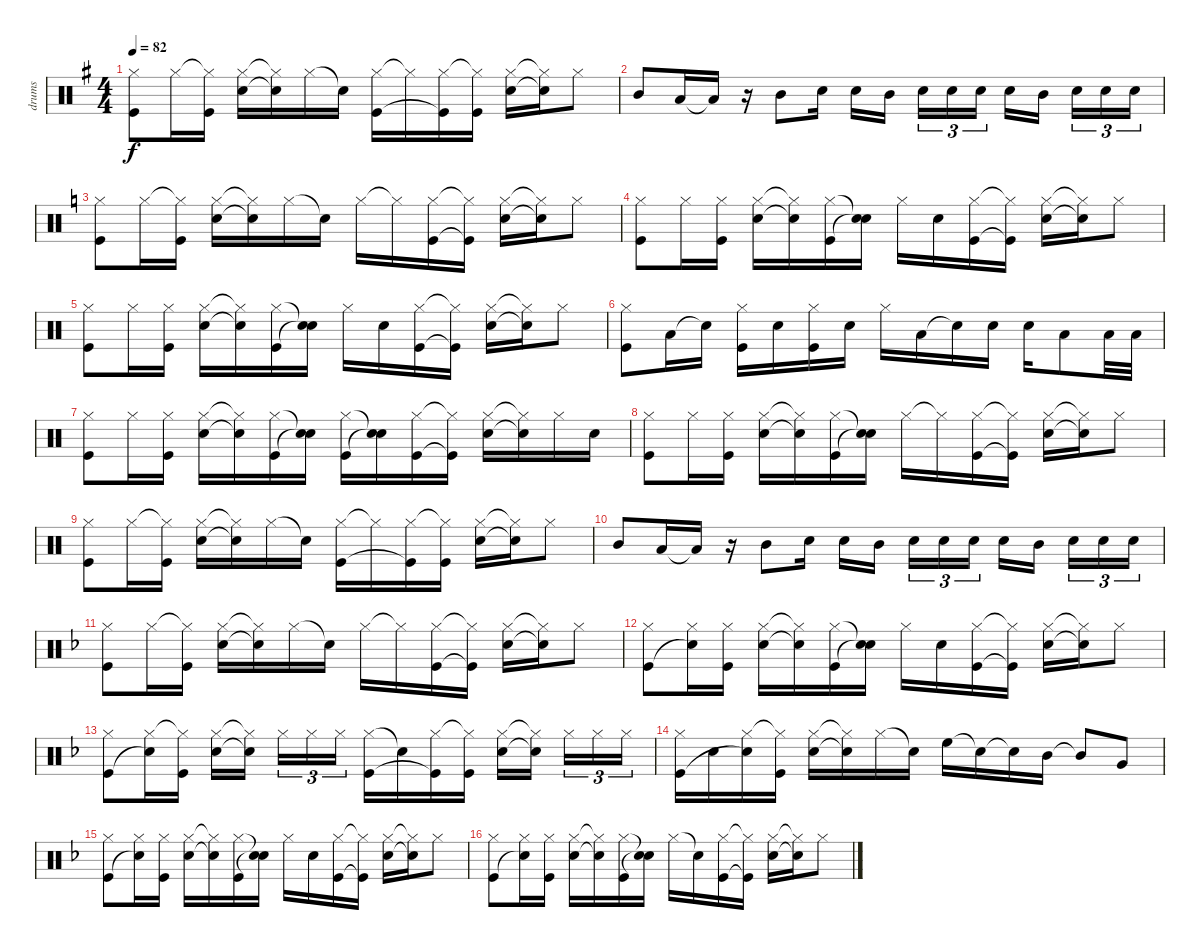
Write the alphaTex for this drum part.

\track ("drums" "drums") {instrument percussion}
\staff {score}
\articulation defaults
\ts (4 4)
\tempo 82
\clef neutral
\ks g
("Hi-Hat (closed)" "Kick (hit)").8{dy f} "Hi-Hat (closed)".16 ("Hi-Hat (closed)"{t} "Kick (hit)").16 ("Hi-Hat (closed)" "Snare (hit) 2").16 ("Hi-Hat (closed)"{t} "Snare (hit) 2"{t}).16 "Hi-Hat (closed)".16 "Snare (hit)"{t}.16 ("Hi-Hat (closed)" "Kick (hit)").16 "Hi-Hat (closed)"{t}.16 ("Hi-Hat (closed)" "Kick (hit)"{t}).16 ("Hi-Hat (closed)"{t} "Kick (hit)").16 ("Hi-Hat (closed)" "Snare (hit) 2").16 ("Hi-Hat (closed)"{t} "Snare (hit)"{t}).16 "Hi-Hat (closed)".8 |
"Mid Tom (hit)".8 "Low Tom (hit)".16 "Low Tom (hit)"{t}.16 r.16 "Mid Tom (hit)".8 "Snare (hit) 2".16 "Snare (hit) 2".16 "Mid Tom (hit)".16 "Snare (hit) 2".16{tu (3 2)} "Snare (hit) 2".16{tu (3 2)} "Snare (hit) 2".16{tu (3 2)} "Snare (hit) 2".16 "Mid Tom (hit)".16 "Snare (hit) 2".16{tu (3 2)} "Snare (hit) 2".16{tu (3 2)} "Snare (hit) 2".16{tu (3 2)} |
\ks c
("Hi-Hat (closed)" "Kick (hit)").8 "Hi-Hat (closed)".16 ("Hi-Hat (closed)"{t} "Kick (hit)").16 ("Hi-Hat (closed)" "Snare (hit) 2").16 ("Hi-Hat (closed)"{t} "Snare (hit) 2"{t}).16 "Hi-Hat (closed)".16 "Snare (hit)"{t}.16 "Hi-Hat (closed)".16 "Hi-Hat (closed)"{t}.16 ("Hi-Hat (closed)" "Kick (hit)").16 ("Hi-Hat (closed)"{t} "Kick (hit)"{t}).16 ("Hi-Hat (closed)" "Snare (hit) 2").16 ("Hi-Hat (closed)"{t} "Snare (hit)"{t}).16 "Hi-Hat (closed)".8 |
("Hi-Hat (closed)" "Kick (hit)").8 "Hi-Hat (closed)".16 ("Hi-Hat (closed)" "Kick (hit)").16 ("Hi-Hat (closed)" "Snare (hit) 2").16 ("Hi-Hat (closed)"{t} "Snare (hit) 2"{t}).16 ("Hi-Hat (closed)" "Kick (hit)").16 ("Snare (hit)"{t} "Snare (hit)"{t}).16 "Hi-Hat (closed)".16 "Snare (hit) 2".16 ("Hi-Hat (closed)" "Kick (hit)").16 ("Hi-Hat (closed)"{t} "Kick (hit)"{t}).16 ("Hi-Hat (closed)" "Snare (hit) 2").16 ("Hi-Hat (closed)"{t} "Snare (hit)"{t}).16 "Hi-Hat (closed)".8 |
("Hi-Hat (closed)" "Kick (hit)").8 "Hi-Hat (closed)".16 ("Hi-Hat (closed)" "Kick (hit)").16 ("Hi-Hat (closed)" "Snare (hit) 2").16 ("Hi-Hat (closed)"{t} "Snare (hit) 2"{t}).16 ("Hi-Hat (closed)" "Kick (hit)").16 ("Snare (hit)"{t} "Snare (hit)"{t}).16 "Hi-Hat (closed)".16 "Snare (hit) 2".16 ("Hi-Hat (closed)" "Kick (hit)").16 ("Hi-Hat (closed)"{t} "Kick (hit)"{t}).16 ("Hi-Hat (closed)" "Snare (hit) 2").16 ("Hi-Hat (closed)"{t} "Snare (hit)"{t}).16 "Hi-Hat (closed)".8 |
("Hi-Hat (closed)" "Kick (hit)").8 "Low Tom (hit)".16 "Snare (hit)"{t}.16 ("Hi-Hat (closed)" "Kick (hit)").16 "Snare (hit) 2".16 ("Hi-Hat (closed)" "Kick (hit)").16 "Snare (hit) 2".16 "Hi-Hat (closed)".16 "Low Tom (hit)".16 "Snare (hit)"{t}.16 "Snare (hit) 2".16 "Snare (hit) 2".16 "Low Tom (hit)".8 "Low Tom (hit)".32 "Low Tom (hit)".32 |
("Hi-Hat (closed)" "Kick (hit)").8 "Hi-Hat (closed)".16 ("Hi-Hat (closed)" "Kick (hit)").16 ("Hi-Hat (closed)" "Snare (hit) 2").16 ("Hi-Hat (closed)"{t} "Snare (hit) 2"{t}).16 ("Hi-Hat (closed)" "Kick (hit)").16 ("Snare (hit)"{t} "Snare (hit)"{t}).16 ("Hi-Hat (closed)" "Kick (hit)").16 ("Snare (hit)"{t} "Snare (hit)"{t}).16 ("Hi-Hat (closed)" "Kick (hit)").16 ("Hi-Hat (closed)"{t} "Kick (hit)"{t}).16 ("Hi-Hat (closed)" "Snare (hit) 2").16 ("Hi-Hat (closed)"{t} "Snare (hit)"{t}).16 "Hi-Hat (closed)".16 "Snare (hit) 2".16 |
("Hi-Hat (closed)" "Kick (hit)").8 "Hi-Hat (closed)".16 ("Hi-Hat (closed)" "Kick (hit)").16 ("Hi-Hat (closed)" "Snare (hit) 2").16 ("Hi-Hat (closed)"{t} "Snare (hit) 2"{t}).16 ("Hi-Hat (closed)" "Kick (hit)").16 ("Snare (hit)"{t} "Snare (hit)"{t}).16 "Hi-Hat (closed)".16 "Hi-Hat (closed)"{t}.16 ("Hi-Hat (closed)" "Kick (hit)").16 ("Hi-Hat (closed)"{t} "Kick (hit)"{t}).16 ("Hi-Hat (closed)" "Snare (hit) 2").16 ("Hi-Hat (closed)"{t} "Snare (hit)"{t}).16 "Hi-Hat (closed)".8 |
("Hi-Hat (closed)" "Kick (hit)").8 "Hi-Hat (closed)".16 ("Hi-Hat (closed)"{t} "Kick (hit)").16 ("Hi-Hat (closed)" "Snare (hit) 2").16 ("Hi-Hat (closed)"{t} "Snare (hit) 2"{t}).16 "Hi-Hat (closed)".16 "Snare (hit)"{t}.16 ("Hi-Hat (closed)" "Kick (hit)").16 "Hi-Hat (closed)"{t}.16 ("Hi-Hat (closed)" "Kick (hit)"{t}).16 ("Hi-Hat (closed)"{t} "Kick (hit)").16 ("Hi-Hat (closed)" "Snare (hit) 2").16 ("Hi-Hat (closed)"{t} "Snare (hit)"{t}).16 "Hi-Hat (closed)".8 |
"Mid Tom (hit)".8 "Low Tom (hit)".16 "Low Tom (hit)"{t}.16 r.16 "Mid Tom (hit)".8 "Snare (hit) 2".16 "Snare (hit) 2".16 "Mid Tom (hit)".16 "Snare (hit) 2".16{tu (3 2)} "Snare (hit) 2".16{tu (3 2)} "Snare (hit) 2".16{tu (3 2)} "Snare (hit) 2".16 "Mid Tom (hit)".16 "Snare (hit) 2".16{tu (3 2)} "Snare (hit) 2".16{tu (3 2)} "Snare (hit) 2".16{tu (3 2)} |
\ks f
("Hi-Hat (closed)" "Kick (hit)").8 "Hi-Hat (closed)".16 ("Hi-Hat (closed)"{t} "Kick (hit)").16 ("Hi-Hat (closed)" "Snare (hit) 2").16 ("Hi-Hat (closed)"{t} "Snare (hit) 2"{t}).16 "Hi-Hat (closed)".16 "Snare (hit)"{t}.16 "Hi-Hat (closed)".16 "Hi-Hat (closed)"{t}.16 ("Hi-Hat (closed)" "Kick (hit)").16 ("Hi-Hat (closed)"{t} "Kick (hit)"{t}).16 ("Hi-Hat (closed)" "Snare (hit) 2").16 ("Hi-Hat (closed)"{t} "Snare (hit)"{t}).16 "Hi-Hat (closed)".8 |
("Hi-Hat (closed)" "Kick (hit)").8 ("Hi-Hat (closed)" "Snare (hit)"{t}).16 ("Hi-Hat (closed)" "Kick (hit)").16 ("Hi-Hat (closed)" "Snare (hit) 2").16 ("Hi-Hat (closed)"{t} "Snare (hit) 2"{t}).16 ("Hi-Hat (closed)" "Kick (hit)").16 ("Snare (hit)"{t} "Snare (hit)"{t}).16 "Hi-Hat (closed)".16 "Snare (hit) 2".16 ("Hi-Hat (closed)" "Kick (hit)").16 ("Hi-Hat (closed)"{t} "Kick (hit)"{t}).16 ("Hi-Hat (closed)" "Snare (hit) 2").16 ("Hi-Hat (closed)"{t} "Snare (hit)"{t}).16 "Hi-Hat (closed)".8 |
("Hi-Hat (closed)" "Kick (hit)").8 ("Hi-Hat (closed)" "Snare (hit)"{t}).16 ("Hi-Hat (closed)"{t} "Kick (hit)").16 ("Hi-Hat (closed)" "Snare (hit) 2").16 ("Hi-Hat (closed)"{t} "Snare (hit) 2"{t}).16 "Hi-Hat (closed)".16{tu (3 2)} "Hi-Hat (closed)".16{tu (3 2)} "Hi-Hat (closed)".16{tu (3 2)} ("Hi-Hat (closed)" "Kick (hit)").16 "Snare (hit)"{t}.16 ("Hi-Hat (closed)" "Kick (hit)"{t}).16 ("Hi-Hat (closed)"{t} "Kick (hit)").16 ("Hi-Hat (closed)" "Snare (hit) 2").16 ("Hi-Hat (closed)"{t} "Snare (hit)"{t}).16 "Hi-Hat (closed)".16{tu (3 2)} "Hi-Hat (closed)".16{tu (3 2)} "Hi-Hat (closed)".16{tu (3 2)} |
("Hi-Hat (closed)" "Kick (hit)").16 "Snare (hit) 2".16 ("Hi-Hat (closed)" "Snare (hit)"{t}).16 ("Hi-Hat (closed)"{t} "Kick (hit)").16 ("Hi-Hat (closed)" "Snare (hit) 2").16 ("Hi-Hat (closed)"{t} "Snare (hit) 2"{t}).16 "Hi-Hat (closed)".16 "Snare (hit)"{t}.16 "High Floor Tom (hit)".16 "Snare (hit) 2"{t}.16 "Snare (hit)"{t}.16 "Mid Tom (hit)".16 "Mid Tom (hit)"{t}.8 "Very Low Tom (hit)".8 |
("Hi-Hat (closed)" "Kick (hit)").8 ("Hi-Hat (closed)" "Snare (hit)"{t}).16 ("Hi-Hat (closed)" "Kick (hit)").16 ("Hi-Hat (closed)" "Snare (hit) 2").16 ("Hi-Hat (closed)"{t} "Snare (hit) 2"{t}).16 ("Hi-Hat (closed)" "Kick (hit)").16 ("Snare (hit)"{t} "Snare (hit)"{t}).16 "Hi-Hat (closed)".16 "Snare (hit) 2".16 ("Hi-Hat (closed)" "Kick (hit)").16 ("Hi-Hat (closed)"{t} "Kick (hit)"{t}).16 ("Hi-Hat (closed)" "Snare (hit) 2").16 ("Hi-Hat (closed)"{t} "Snare (hit)"{t}).16 "Hi-Hat (closed)".8 |
("Hi-Hat (closed)" "Kick (hit)").8 ("Hi-Hat (closed)" "Snare (hit)"{t}).16 ("Hi-Hat (closed)" "Kick (hit)").16 ("Hi-Hat (closed)" "Snare (hit) 2").16 ("Hi-Hat (closed)"{t} "Snare (hit) 2"{t}).16 ("Hi-Hat (closed)" "Kick (hit)").16 ("Snare (hit)"{t} "Snare (hit)"{t}).16 "Hi-Hat (closed)".16 "Snare (hit)"{t}.16 ("Hi-Hat (closed)" "Kick (hit)").16 ("Hi-Hat (closed)"{t} "Kick (hit)"{t}).16 ("Hi-Hat (closed)" "Snare (hit) 2").16 ("Hi-Hat (closed)"{t} "Snare (hit)"{t}).16 "Hi-Hat (closed)".8
